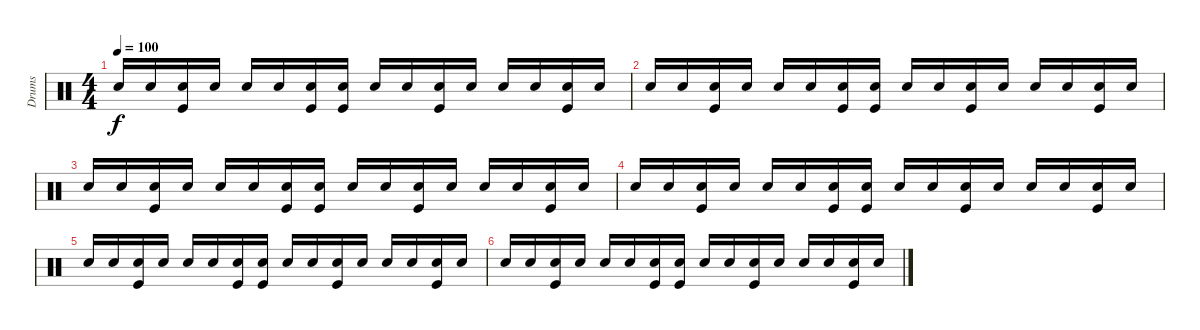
\track ("Drums" "Drums") {instrument percussion}
\staff {score}
\articulation defaults
\ts (4 4)
\tempo 100
\clef neutral
\ks c "Snare (hit) 2".16{dy f} "Snare (hit) 2".16
("Snare (hit) 2" "Kick (hit)").16 "Snare (hit) 2".16 "Snare (hit) 2".16 "Snare (hit) 2".16 ("Snare (hit) 2" "Kick (hit)").16 ("Snare (hit) 2" "Kick (hit)").16 "Snare (hit) 2".16 "Snare (hit) 2".16 ("Snare (hit) 2" "Kick (hit)").16 "Snare (hit) 2".16 "Snare (hit) 2".16 "Snare (hit) 2".16 ("Snare (hit) 2" "Kick (hit)").16 "Snare (hit) 2".16 |
"Snare (hit) 2".16 "Snare (hit) 2".16 ("Snare (hit) 2" "Kick (hit)").16 "Snare (hit) 2".16 "Snare (hit) 2".16 "Snare (hit) 2".16 ("Snare (hit) 2" "Kick (hit)").16 ("Snare (hit) 2" "Kick (hit)").16 "Snare (hit) 2".16 "Snare (hit) 2".16 ("Snare (hit) 2" "Kick (hit)").16 "Snare (hit) 2".16 "Snare (hit) 2".16 "Snare (hit) 2".16 ("Snare (hit) 2" "Kick (hit)").16 "Snare (hit) 2".16 |
"Snare (hit) 2".16 "Snare (hit) 2".16 ("Snare (hit) 2" "Kick (hit)").16 "Snare (hit) 2".16 "Snare (hit) 2".16 "Snare (hit) 2".16 ("Snare (hit) 2" "Kick (hit)").16 ("Snare (hit) 2" "Kick (hit)").16 "Snare (hit) 2".16 "Snare (hit) 2".16 ("Snare (hit) 2" "Kick (hit)").16 "Snare (hit) 2".16 "Snare (hit) 2".16 "Snare (hit) 2".16 ("Snare (hit) 2" "Kick (hit)").16 "Snare (hit) 2".16 |
"Snare (hit) 2".16 "Snare (hit) 2".16 ("Snare (hit) 2" "Kick (hit)").16 "Snare (hit) 2".16 "Snare (hit) 2".16 "Snare (hit) 2".16 ("Snare (hit) 2" "Kick (hit)").16 ("Snare (hit) 2" "Kick (hit)").16 "Snare (hit) 2".16 "Snare (hit) 2".16 ("Snare (hit) 2" "Kick (hit)").16 "Snare (hit) 2".16 "Snare (hit) 2".16 "Snare (hit) 2".16 ("Snare (hit) 2" "Kick (hit)").16 "Snare (hit) 2".16 |
"Snare (hit) 2".16 "Snare (hit) 2".16 ("Snare (hit) 2" "Kick (hit)").16 "Snare (hit) 2".16 "Snare (hit) 2".16 "Snare (hit) 2".16 ("Snare (hit) 2" "Kick (hit)").16 ("Snare (hit) 2" "Kick (hit)").16 "Snare (hit) 2".16 "Snare (hit) 2".16 ("Snare (hit) 2" "Kick (hit)").16 "Snare (hit) 2".16 "Snare (hit) 2".16 "Snare (hit) 2".16 ("Snare (hit) 2" "Kick (hit)").16 "Snare (hit) 2".16 |
"Snare (hit) 2".16 "Snare (hit) 2".16 ("Snare (hit) 2" "Kick (hit)").16 "Snare (hit) 2".16 "Snare (hit) 2".16 "Snare (hit) 2".16 ("Snare (hit) 2" "Kick (hit)").16 ("Snare (hit) 2" "Kick (hit)").16 "Snare (hit) 2".16 "Snare (hit) 2".16 ("Snare (hit) 2" "Kick (hit)").16 "Snare (hit) 2".16 "Snare (hit) 2".16 "Snare (hit) 2".16 ("Snare (hit) 2" "Kick (hit)").16 "Snare (hit) 2".16
